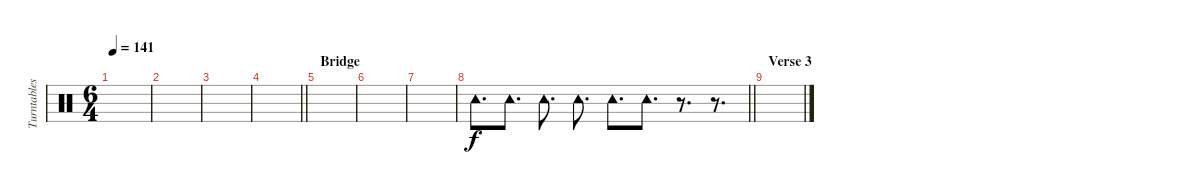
\track ("Turntables" "Turntables") {instrument percussion}
\staff {score}
\articulation defaults
\ts (6 4)
\tempo 141
\clef neutral
\ks c
|
|
|
\barLineRight lightlight
|
\section ("" "Bridge")
|
|
|
\barLineRight lightlight "Tambourine (hit)".8{d} "Tambourine (hit)".8{d} "Tambourine (hit)".8{d} "Tambourine (hit)".8{d} "Tambourine (hit)".8{d} "Tambourine (hit)".8{d}
r.8{d} r.8{d} |
\section ("" "Verse 3")
